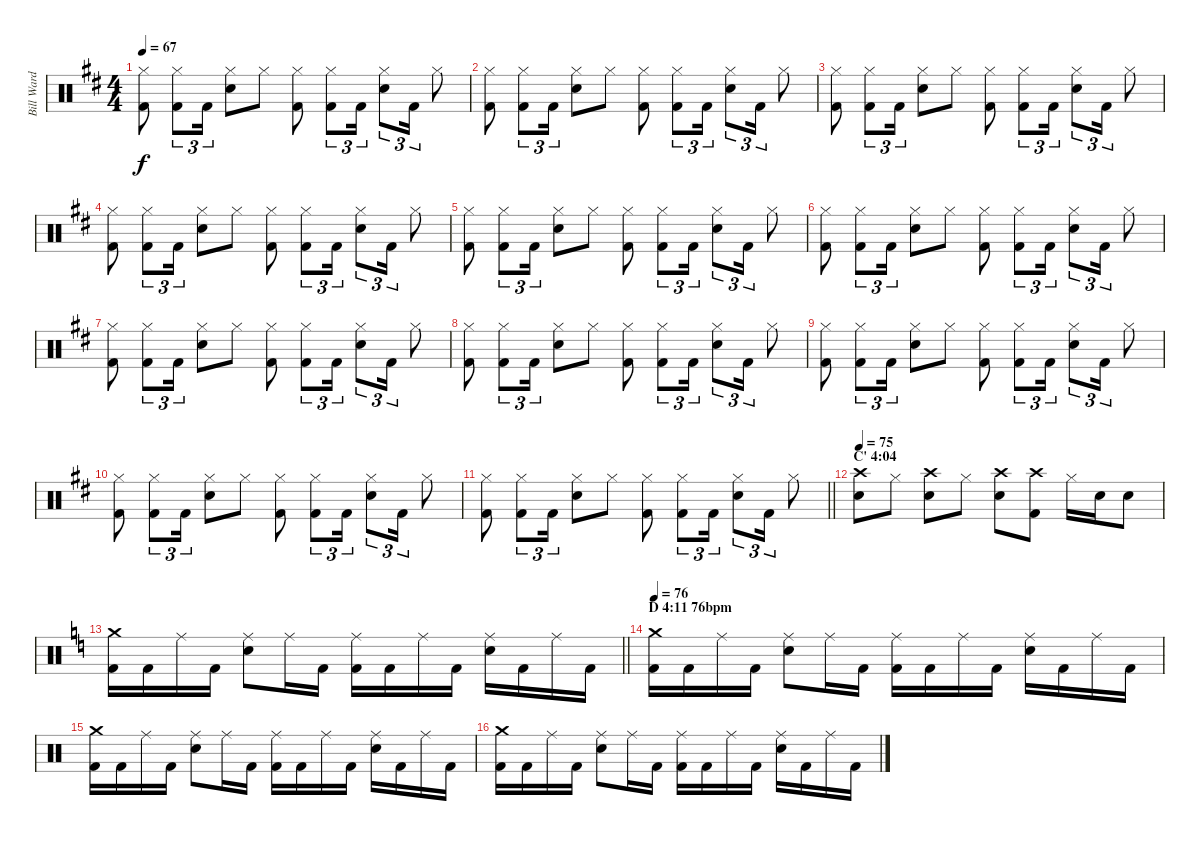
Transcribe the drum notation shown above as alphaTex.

\track ("Bill Ward (Drums)" "Bill Ward ") {instrument percussion}
\staff {score}
\articulation defaults
\ts (4 4)
\tempo 67
\clef neutral
\ks d
("Hi-Hat (closed)" "Kick (hit) 2").8{dy f} ("Hi-Hat (closed)" "Kick (hit) 2").8{tu (3 2)} "Kick (hit) 2".16{tu (3 2)} ("Hi-Hat (closed)" "Snare (hit) 2").8 "Hi-Hat (closed)".8 ("Hi-Hat (closed)" "Kick (hit) 2").8 ("Hi-Hat (closed)" "Kick (hit) 2").8{tu (3 2)} "Kick (hit) 2".16{tu (3 2)} ("Hi-Hat (closed)" "Snare (hit) 2").8{tu (3 2)} "Kick (hit) 2".16{tu (3 2)} "Hi-Hat (closed)".8 |
("Hi-Hat (closed)" "Kick (hit) 2").8 ("Hi-Hat (closed)" "Kick (hit) 2").8{tu (3 2)} "Kick (hit) 2".16{tu (3 2)} ("Hi-Hat (closed)" "Snare (hit) 2").8 "Hi-Hat (closed)".8 ("Hi-Hat (closed)" "Kick (hit) 2").8 ("Hi-Hat (closed)" "Kick (hit) 2").8{tu (3 2)} "Kick (hit) 2".16{tu (3 2)} ("Hi-Hat (closed)" "Snare (hit) 2").8{tu (3 2)} "Kick (hit) 2".16{tu (3 2)} "Hi-Hat (closed)".8 |
("Hi-Hat (closed)" "Kick (hit) 2").8 ("Hi-Hat (closed)" "Kick (hit) 2").8{tu (3 2)} "Kick (hit) 2".16{tu (3 2)} ("Hi-Hat (closed)" "Snare (hit) 2").8 "Hi-Hat (closed)".8 ("Hi-Hat (closed)" "Kick (hit) 2").8 ("Hi-Hat (closed)" "Kick (hit) 2").8{tu (3 2)} "Kick (hit) 2".16{tu (3 2)} ("Hi-Hat (closed)" "Snare (hit) 2").8{tu (3 2)} "Kick (hit) 2".16{tu (3 2)} "Hi-Hat (closed)".8 |
("Hi-Hat (closed)" "Kick (hit) 2").8 ("Hi-Hat (closed)" "Kick (hit) 2").8{tu (3 2)} "Kick (hit) 2".16{tu (3 2)} ("Hi-Hat (closed)" "Snare (hit) 2").8 "Hi-Hat (closed)".8 ("Hi-Hat (closed)" "Kick (hit) 2").8 ("Hi-Hat (closed)" "Kick (hit) 2").8{tu (3 2)} "Kick (hit) 2".16{tu (3 2)} ("Hi-Hat (closed)" "Snare (hit) 2").8{tu (3 2)} "Kick (hit) 2".16{tu (3 2)} "Hi-Hat (closed)".8 |
("Hi-Hat (closed)" "Kick (hit) 2").8 ("Hi-Hat (closed)" "Kick (hit) 2").8{tu (3 2)} "Kick (hit) 2".16{tu (3 2)} ("Hi-Hat (closed)" "Snare (hit) 2").8 "Hi-Hat (closed)".8 ("Hi-Hat (closed)" "Kick (hit) 2").8 ("Hi-Hat (closed)" "Kick (hit) 2").8{tu (3 2)} "Kick (hit) 2".16{tu (3 2)} ("Hi-Hat (closed)" "Snare (hit) 2").8{tu (3 2)} "Kick (hit) 2".16{tu (3 2)} "Hi-Hat (closed)".8 |
("Hi-Hat (closed)" "Kick (hit) 2").8 ("Hi-Hat (closed)" "Kick (hit) 2").8{tu (3 2)} "Kick (hit) 2".16{tu (3 2)} ("Hi-Hat (closed)" "Snare (hit) 2").8 "Hi-Hat (closed)".8 ("Hi-Hat (closed)" "Kick (hit) 2").8 ("Hi-Hat (closed)" "Kick (hit) 2").8{tu (3 2)} "Kick (hit) 2".16{tu (3 2)} ("Hi-Hat (closed)" "Snare (hit) 2").8{tu (3 2)} "Kick (hit) 2".16{tu (3 2)} "Hi-Hat (closed)".8 |
("Hi-Hat (closed)" "Kick (hit) 2").8 ("Hi-Hat (closed)" "Kick (hit) 2").8{tu (3 2)} "Kick (hit) 2".16{tu (3 2)} ("Hi-Hat (closed)" "Snare (hit) 2").8 "Hi-Hat (closed)".8 ("Hi-Hat (closed)" "Kick (hit) 2").8 ("Hi-Hat (closed)" "Kick (hit) 2").8{tu (3 2)} "Kick (hit) 2".16{tu (3 2)} ("Hi-Hat (closed)" "Snare (hit) 2").8{tu (3 2)} "Kick (hit) 2".16{tu (3 2)} "Hi-Hat (closed)".8 |
("Hi-Hat (closed)" "Kick (hit) 2").8 ("Hi-Hat (closed)" "Kick (hit) 2").8{tu (3 2)} "Kick (hit) 2".16{tu (3 2)} ("Hi-Hat (closed)" "Snare (hit) 2").8 "Hi-Hat (closed)".8 ("Hi-Hat (closed)" "Kick (hit) 2").8 ("Hi-Hat (closed)" "Kick (hit) 2").8{tu (3 2)} "Kick (hit) 2".16{tu (3 2)} ("Hi-Hat (closed)" "Snare (hit) 2").8{tu (3 2)} "Kick (hit) 2".16{tu (3 2)} "Hi-Hat (closed)".8 |
("Hi-Hat (closed)" "Kick (hit) 2").8 ("Hi-Hat (closed)" "Kick (hit) 2").8{tu (3 2)} "Kick (hit) 2".16{tu (3 2)} ("Hi-Hat (closed)" "Snare (hit) 2").8 "Hi-Hat (closed)".8 ("Hi-Hat (closed)" "Kick (hit) 2").8 ("Hi-Hat (closed)" "Kick (hit) 2").8{tu (3 2)} "Kick (hit) 2".16{tu (3 2)} ("Hi-Hat (closed)" "Snare (hit) 2").8{tu (3 2)} "Kick (hit) 2".16{tu (3 2)} "Hi-Hat (closed)".8 |
("Hi-Hat (closed)" "Kick (hit) 2").8 ("Hi-Hat (closed)" "Kick (hit) 2").8{tu (3 2)} "Kick (hit) 2".16{tu (3 2)} ("Hi-Hat (closed)" "Snare (hit) 2").8 "Hi-Hat (closed)".8 ("Hi-Hat (closed)" "Kick (hit) 2").8 ("Hi-Hat (closed)" "Kick (hit) 2").8{tu (3 2)} "Kick (hit) 2".16{tu (3 2)} ("Hi-Hat (closed)" "Snare (hit) 2").8{tu (3 2)} "Kick (hit) 2".16{tu (3 2)} "Hi-Hat (closed)".8 |
\barLineRight lightlight
("Hi-Hat (closed)" "Kick (hit) 2").8 ("Hi-Hat (closed)" "Kick (hit) 2").8{tu (3 2)} "Kick (hit) 2".16{tu (3 2)} ("Hi-Hat (closed)" "Snare (hit) 2").8 "Hi-Hat (closed)".8 ("Hi-Hat (closed)" "Kick (hit) 2").8 ("Hi-Hat (closed)" "Kick (hit) 2").8{tu (3 2)} "Kick (hit) 2".16{tu (3 2)} ("Hi-Hat (closed)" "Snare (hit) 2").8{tu (3 2)} "Kick (hit) 2".16{tu (3 2)} "Hi-Hat (closed)".8 |
\section ("" "C' 4:04")
\tempo 75
("Crash high (hit)" "Snare (hit) 2").8 "Hi-Hat (closed)".8 ("Crash high (hit)" "Snare (hit) 2").8 "Hi-Hat (closed)".8 ("Crash high (hit)" "Snare (hit) 2").8 ("Crash high (hit)" "Kick (hit) 2").8 "Hi-Hat (closed)".16 "Snare (hit) 2".16 "Snare (hit) 2".8 |
\barLineRight lightlight
\ks c
("Crash medium (hit)" "Kick (hit) 2").16 "Kick (hit) 2".16 "Ride (middle)".16 "Kick (hit) 2".16 ("Ride (middle)" "Snare (hit) 2").8 "Ride (middle)".16 "Kick (hit) 2".16 ("Ride (middle)" "Kick (hit) 2").16 "Kick (hit) 2".16 "Ride (middle)".16 "Kick (hit) 2".16 ("Ride (middle)" "Snare (hit) 2").16 "Kick (hit) 2".16 "Ride (middle)".16 "Kick (hit) 2".16 |
\section ("" "D 4:11 76bpm")
\tempo 76
("Crash medium (hit)" "Kick (hit) 2").16 "Kick (hit) 2".16 "Ride (middle)".16 "Kick (hit) 2".16 ("Ride (middle)" "Snare (hit) 2").8 "Ride (middle)".16 "Kick (hit) 2".16 ("Ride (middle)" "Kick (hit) 2").16 "Kick (hit) 2".16 "Ride (middle)".16 "Kick (hit) 2".16 ("Ride (middle)" "Snare (hit) 2").16 "Kick (hit) 2".16 "Ride (middle)".16 "Kick (hit) 2".16 |
("Crash medium (hit)" "Kick (hit) 2").16 "Kick (hit) 2".16 "Ride (middle)".16 "Kick (hit) 2".16 ("Ride (middle)" "Snare (hit) 2").8 "Ride (middle)".16 "Kick (hit) 2".16 ("Ride (middle)" "Kick (hit) 2").16 "Kick (hit) 2".16 "Ride (middle)".16 "Kick (hit) 2".16 ("Ride (middle)" "Snare (hit) 2").16 "Kick (hit) 2".16 "Ride (middle)".16 "Kick (hit) 2".16 |
("Crash medium (hit)" "Kick (hit) 2").16 "Kick (hit) 2".16 "Ride (middle)".16 "Kick (hit) 2".16 ("Ride (middle)" "Snare (hit) 2").8 "Ride (middle)".16 "Kick (hit) 2".16 ("Ride (middle)" "Kick (hit) 2").16 "Kick (hit) 2".16 "Ride (middle)".16 "Kick (hit) 2".16 ("Ride (middle)" "Snare (hit) 2").16 "Kick (hit) 2".16 "Ride (middle)".16 "Kick (hit) 2".16
